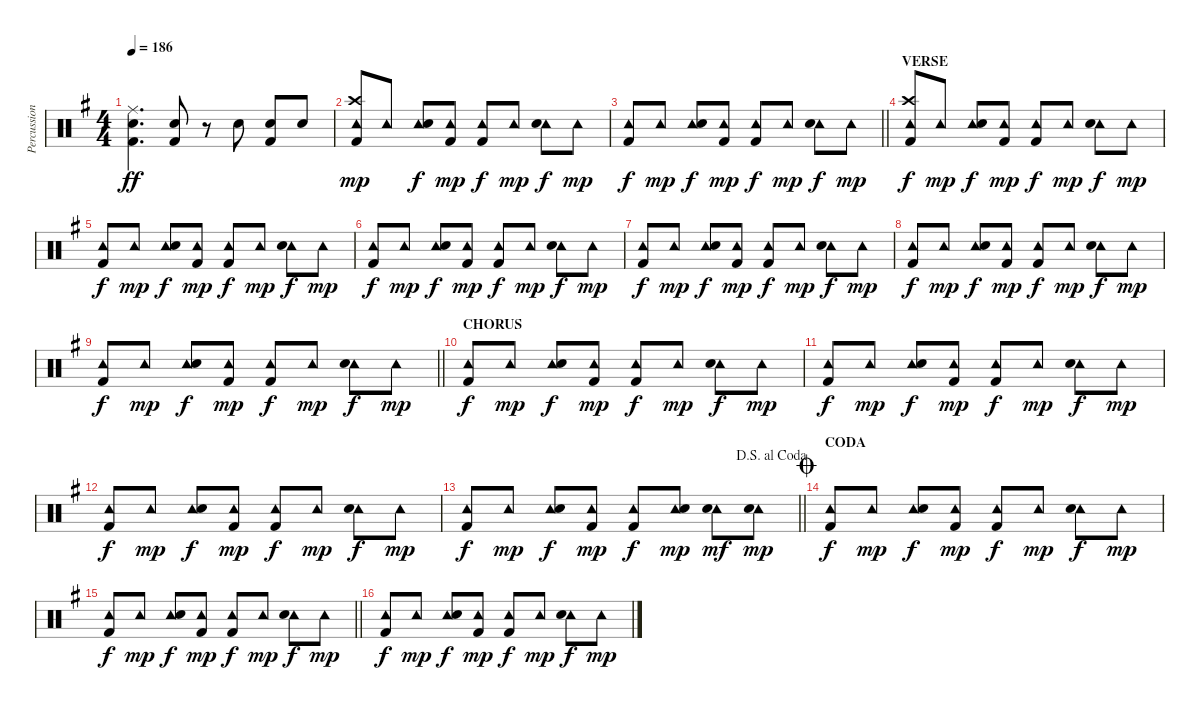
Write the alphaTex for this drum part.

\track ("Percussion" "Percussion") {instrument percussion}
\staff {score}
\articulation defaults
\ts (4 4)
\tempo 186
\clef neutral
\ks g
("Ride (middle)" "Electric Snare (hit)" "Kick (hit) 2").4{d dy ff} ("Electric Snare (hit)" "Kick (hit) 2").8 r.8 "Electric Snare (hit)".8 ("Snare (hit) 2" "Kick (hit) 2").8 "Electric Snare (hit)".8 |
("Crash high (hit)" "Tambourine (hit)" "Kick (hit) 2").8{dy mp} "Tambourine (hit)".8 ("Tambourine (hit)" "Electric Snare (hit)").8{dy f} ("Tambourine (hit)" "Kick (hit) 2").8{dy mp} ("Tambourine (hit)" "Kick (hit) 2").8{dy f} "Tambourine (hit)".8{dy mp} ("Tambourine (hit)" "Electric Snare (hit)").8{dy f} "Tambourine (hit)".8{dy mp} |
\barLineRight lightlight
("Tambourine (hit)" "Kick (hit) 2").8{dy f} "Tambourine (hit)".8{dy mp} ("Tambourine (hit)" "Electric Snare (hit)").8{dy f} ("Tambourine (hit)" "Kick (hit) 2").8{dy mp} ("Tambourine (hit)" "Kick (hit) 2").8{dy f} "Tambourine (hit)".8{dy mp} ("Tambourine (hit)" "Electric Snare (hit)").8{dy f} "Tambourine (hit)".8{dy mp} |
\section ("" "VERSE")
("Crash high (hit)" "Tambourine (hit)" "Kick (hit) 2").8{dy f} "Tambourine (hit)".8{dy mp} ("Tambourine (hit)" "Electric Snare (hit)").8{dy f} ("Tambourine (hit)" "Kick (hit) 2").8{dy mp} ("Tambourine (hit)" "Kick (hit) 2").8{dy f} "Tambourine (hit)".8{dy mp} ("Tambourine (hit)" "Electric Snare (hit)").8{dy f} "Tambourine (hit)".8{dy mp} |
("Tambourine (hit)" "Kick (hit) 2").8{dy f} "Tambourine (hit)".8{dy mp} ("Tambourine (hit)" "Electric Snare (hit)").8{dy f} ("Tambourine (hit)" "Kick (hit) 2").8{dy mp} ("Tambourine (hit)" "Kick (hit) 2").8{dy f} "Tambourine (hit)".8{dy mp} ("Tambourine (hit)" "Electric Snare (hit)").8{dy f} "Tambourine (hit)".8{dy mp} |
("Tambourine (hit)" "Kick (hit) 2").8{dy f} "Tambourine (hit)".8{dy mp} ("Tambourine (hit)" "Electric Snare (hit)").8{dy f} ("Tambourine (hit)" "Kick (hit) 2").8{dy mp} ("Tambourine (hit)" "Kick (hit) 2").8{dy f} "Tambourine (hit)".8{dy mp} ("Tambourine (hit)" "Electric Snare (hit)").8{dy f} "Tambourine (hit)".8{dy mp} |
("Tambourine (hit)" "Kick (hit) 2").8{dy f} "Tambourine (hit)".8{dy mp} ("Tambourine (hit)" "Electric Snare (hit)").8{dy f} ("Tambourine (hit)" "Kick (hit) 2").8{dy mp} ("Tambourine (hit)" "Kick (hit) 2").8{dy f} "Tambourine (hit)".8{dy mp} ("Tambourine (hit)" "Electric Snare (hit)").8{dy f} "Tambourine (hit)".8{dy mp} |
("Tambourine (hit)" "Kick (hit) 2").8{dy f} "Tambourine (hit)".8{dy mp} ("Tambourine (hit)" "Electric Snare (hit)").8{dy f} ("Tambourine (hit)" "Kick (hit) 2").8{dy mp} ("Tambourine (hit)" "Kick (hit) 2").8{dy f} "Tambourine (hit)".8{dy mp} ("Tambourine (hit)" "Electric Snare (hit)").8{dy f} "Tambourine (hit)".8{dy mp} |
\barLineRight lightlight
("Tambourine (hit)" "Kick (hit) 2").8{dy f} "Tambourine (hit)".8{dy mp} ("Tambourine (hit)" "Electric Snare (hit)").8{dy f} ("Tambourine (hit)" "Kick (hit) 2").8{dy mp} ("Tambourine (hit)" "Kick (hit) 2").8{dy f} "Tambourine (hit)".8{dy mp} ("Tambourine (hit)" "Electric Snare (hit)").8{dy f} "Tambourine (hit)".8{dy mp} |
\section ("" "CHORUS")
("Tambourine (hit)" "Kick (hit) 2").8{dy f} "Tambourine (hit)".8{dy mp} ("Tambourine (hit)" "Electric Snare (hit)").8{dy f} ("Tambourine (hit)" "Kick (hit) 2").8{dy mp} ("Tambourine (hit)" "Kick (hit) 2").8{dy f} "Tambourine (hit)".8{dy mp} ("Tambourine (hit)" "Electric Snare (hit)").8{dy f} "Tambourine (hit)".8{dy mp} |
("Tambourine (hit)" "Kick (hit) 2").8{dy f} "Tambourine (hit)".8{dy mp} ("Tambourine (hit)" "Electric Snare (hit)").8{dy f} ("Tambourine (hit)" "Kick (hit) 2").8{dy mp} ("Tambourine (hit)" "Kick (hit) 2").8{dy f} "Tambourine (hit)".8{dy mp} ("Tambourine (hit)" "Electric Snare (hit)").8{dy f} "Tambourine (hit)".8{dy mp} |
("Tambourine (hit)" "Kick (hit) 2").8{dy f} "Tambourine (hit)".8{dy mp} ("Tambourine (hit)" "Electric Snare (hit)").8{dy f} ("Tambourine (hit)" "Kick (hit) 2").8{dy mp} ("Tambourine (hit)" "Kick (hit) 2").8{dy f} "Tambourine (hit)".8{dy mp} ("Tambourine (hit)" "Electric Snare (hit)").8{dy f} "Tambourine (hit)".8{dy mp} |
\jump dalsegnoalcoda
\barLineRight lightlight
("Tambourine (hit)" "Kick (hit) 2").8{dy f} "Tambourine (hit)".8{dy mp} ("Tambourine (hit)" "Electric Snare (hit)").8{dy f} ("Tambourine (hit)" "Kick (hit) 2").8{dy mp} ("Tambourine (hit)" "Kick (hit) 2").8{dy f} ("Tambourine (hit)" "Electric Snare (hit)").8{dy mp} ("Tambourine (hit)" "Electric Snare (hit)").8{dy mf} ("Tambourine (hit)" "Electric Snare (hit)").8{dy mp} |
\section ("" "CODA")
\jump coda
("Tambourine (hit)" "Kick (hit) 2").8{dy f} "Tambourine (hit)".8{dy mp} ("Tambourine (hit)" "Electric Snare (hit)").8{dy f} ("Tambourine (hit)" "Kick (hit) 2").8{dy mp} ("Tambourine (hit)" "Kick (hit) 2").8{dy f} "Tambourine (hit)".8{dy mp} ("Tambourine (hit)" "Electric Snare (hit)").8{dy f} "Tambourine (hit)".8{dy mp} |
\barLineRight lightlight
("Tambourine (hit)" "Kick (hit) 2").8{dy f} "Tambourine (hit)".8{dy mp} ("Tambourine (hit)" "Electric Snare (hit)").8{dy f} ("Tambourine (hit)" "Kick (hit) 2").8{dy mp} ("Tambourine (hit)" "Kick (hit) 2").8{dy f} "Tambourine (hit)".8{dy mp} ("Tambourine (hit)" "Electric Snare (hit)").8{dy f} "Tambourine (hit)".8{dy mp} |
("Tambourine (hit)" "Kick (hit) 2").8{dy f} "Tambourine (hit)".8{dy mp} ("Tambourine (hit)" "Electric Snare (hit)").8{dy f} ("Tambourine (hit)" "Kick (hit) 2").8{dy mp} ("Tambourine (hit)" "Kick (hit) 2").8{dy f} "Tambourine (hit)".8{dy mp} ("Tambourine (hit)" "Electric Snare (hit)").8{dy f} "Tambourine (hit)".8{dy mp}
